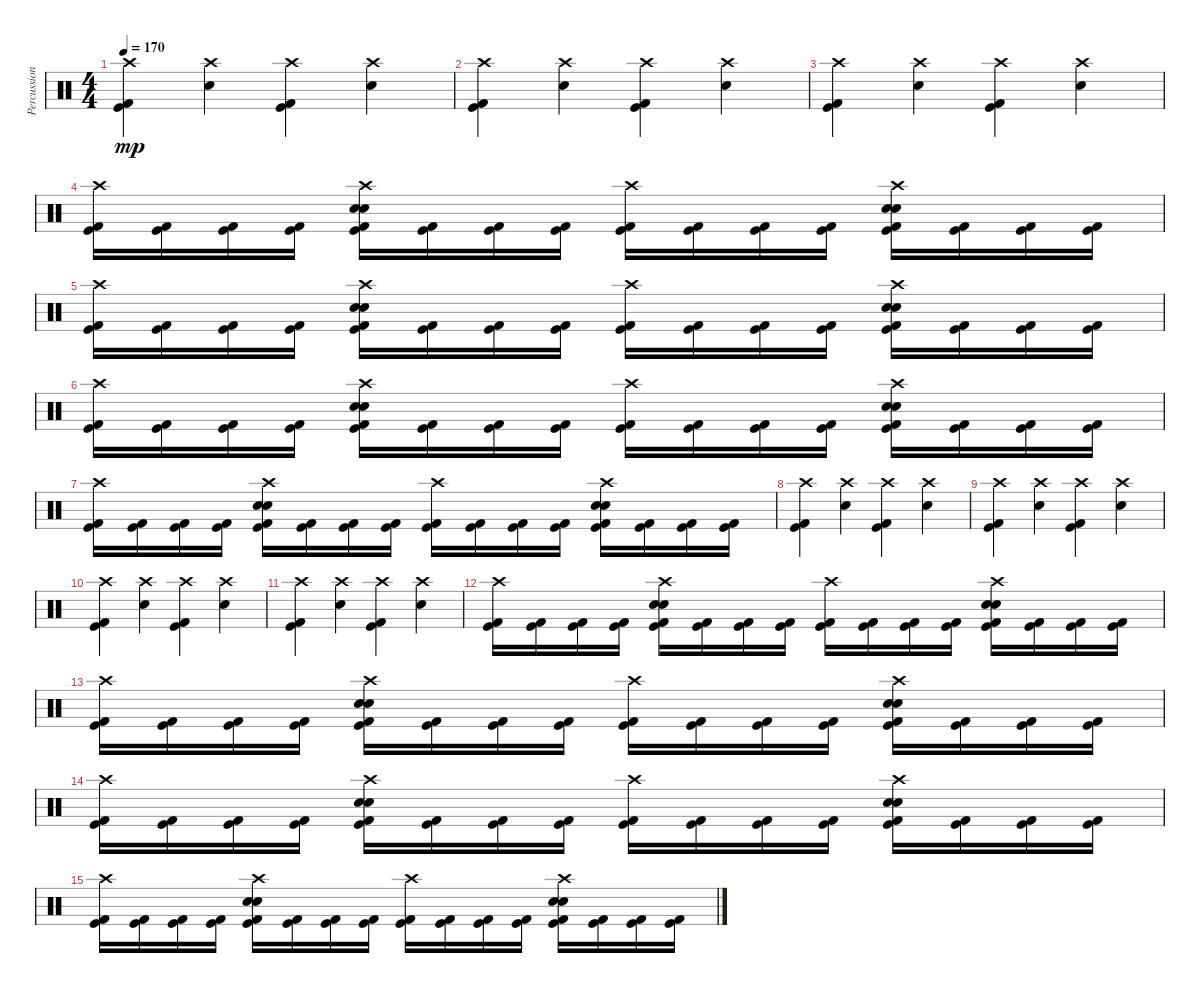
\track ("Percussion" "Percussion") {instrument percussion}
\staff {score}
\articulation defaults
\ts (4 4)
\tempo 170
\clef neutral
\ks c
("Crash high (hit)" "Kick (hit) 2" "Kick (hit)").4{dy mp} ("Crash high (hit)" "Electric Snare (hit)").4 ("Crash high (hit)" "Kick (hit) 2" "Kick (hit)").4 ("Crash high (hit)" "Electric Snare (hit)").4 |
("Crash high (hit)" "Kick (hit) 2" "Kick (hit)").4 ("Crash high (hit)" "Electric Snare (hit)").4 ("Crash high (hit)" "Kick (hit) 2" "Kick (hit)").4 ("Crash high (hit)" "Electric Snare (hit)").4 |
("Crash high (hit)" "Kick (hit) 2" "Kick (hit)").4 ("Crash high (hit)" "Electric Snare (hit)").4 ("Crash high (hit)" "Kick (hit) 2" "Kick (hit)").4 ("Crash high (hit)" "Electric Snare (hit)").4 |
("Crash high (hit)" "Kick (hit)" "Kick (hit) 2").16 ("Kick (hit)" "Kick (hit) 2").16 ("Kick (hit)" "Kick (hit) 2").16 ("Kick (hit)" "Kick (hit) 2").16 ("Crash high (hit)" "Electric Snare (hit)" "Kick (hit)" "Kick (hit) 2" "Electric Snare (hit)").16 ("Kick (hit)" "Kick (hit) 2").16 ("Kick (hit)" "Kick (hit) 2").16 ("Kick (hit)" "Kick (hit) 2").16 ("Crash high (hit)" "Kick (hit)" "Kick (hit) 2").16 ("Kick (hit)" "Kick (hit) 2").16 ("Kick (hit)" "Kick (hit) 2").16 ("Kick (hit)" "Kick (hit) 2").16 ("Crash high (hit)" "Electric Snare (hit)" "Kick (hit)" "Kick (hit) 2" "Electric Snare (hit)").16 ("Kick (hit)" "Kick (hit) 2").16 ("Kick (hit)" "Kick (hit) 2").16 ("Kick (hit)" "Kick (hit) 2").16 |
("Crash high (hit)" "Kick (hit)" "Kick (hit) 2").16 ("Kick (hit)" "Kick (hit) 2").16 ("Kick (hit)" "Kick (hit) 2").16 ("Kick (hit)" "Kick (hit) 2").16 ("Crash high (hit)" "Electric Snare (hit)" "Kick (hit)" "Kick (hit) 2" "Electric Snare (hit)").16 ("Kick (hit)" "Kick (hit) 2").16 ("Kick (hit)" "Kick (hit) 2").16 ("Kick (hit)" "Kick (hit) 2").16 ("Crash high (hit)" "Kick (hit)" "Kick (hit) 2").16 ("Kick (hit)" "Kick (hit) 2").16 ("Kick (hit)" "Kick (hit) 2").16 ("Kick (hit)" "Kick (hit) 2").16 ("Crash high (hit)" "Electric Snare (hit)" "Kick (hit)" "Kick (hit) 2" "Electric Snare (hit)").16 ("Kick (hit)" "Kick (hit) 2").16 ("Kick (hit)" "Kick (hit) 2").16 ("Kick (hit)" "Kick (hit) 2").16 |
("Crash high (hit)" "Kick (hit)" "Kick (hit) 2").16 ("Kick (hit)" "Kick (hit) 2").16 ("Kick (hit)" "Kick (hit) 2").16 ("Kick (hit)" "Kick (hit) 2").16 ("Crash high (hit)" "Electric Snare (hit)" "Kick (hit)" "Kick (hit) 2" "Electric Snare (hit)").16 ("Kick (hit)" "Kick (hit) 2").16 ("Kick (hit)" "Kick (hit) 2").16 ("Kick (hit)" "Kick (hit) 2").16 ("Crash high (hit)" "Kick (hit)" "Kick (hit) 2").16 ("Kick (hit)" "Kick (hit) 2").16 ("Kick (hit)" "Kick (hit) 2").16 ("Kick (hit)" "Kick (hit) 2").16 ("Crash high (hit)" "Electric Snare (hit)" "Kick (hit)" "Kick (hit) 2" "Electric Snare (hit)").16 ("Kick (hit)" "Kick (hit) 2").16 ("Kick (hit)" "Kick (hit) 2").16 ("Kick (hit)" "Kick (hit) 2").16 |
("Crash high (hit)" "Kick (hit)" "Kick (hit) 2").16 ("Kick (hit)" "Kick (hit) 2").16 ("Kick (hit)" "Kick (hit) 2").16 ("Kick (hit)" "Kick (hit) 2").16 ("Crash high (hit)" "Electric Snare (hit)" "Kick (hit)" "Kick (hit) 2" "Electric Snare (hit)").16 ("Kick (hit)" "Kick (hit) 2").16 ("Kick (hit)" "Kick (hit) 2").16 ("Kick (hit)" "Kick (hit) 2").16 ("Crash high (hit)" "Kick (hit)" "Kick (hit) 2").16 ("Kick (hit)" "Kick (hit) 2").16 ("Kick (hit)" "Kick (hit) 2").16 ("Kick (hit)" "Kick (hit) 2").16 ("Crash high (hit)" "Electric Snare (hit)" "Kick (hit)" "Kick (hit) 2" "Electric Snare (hit)").16 ("Kick (hit)" "Kick (hit) 2").16 ("Kick (hit)" "Kick (hit) 2").16 ("Kick (hit)" "Kick (hit) 2").16 |
("Crash high (hit)" "Kick (hit) 2" "Kick (hit)").4 ("Crash high (hit)" "Electric Snare (hit)").4 ("Crash high (hit)" "Kick (hit) 2" "Kick (hit)").4 ("Crash high (hit)" "Electric Snare (hit)").4 |
("Crash high (hit)" "Kick (hit) 2" "Kick (hit)").4 ("Crash high (hit)" "Electric Snare (hit)").4 ("Crash high (hit)" "Kick (hit) 2" "Kick (hit)").4 ("Crash high (hit)" "Electric Snare (hit)").4 |
("Crash high (hit)" "Kick (hit) 2" "Kick (hit)").4 ("Crash high (hit)" "Electric Snare (hit)").4 ("Crash high (hit)" "Kick (hit) 2" "Kick (hit)").4 ("Crash high (hit)" "Electric Snare (hit)").4 |
("Crash high (hit)" "Kick (hit) 2" "Kick (hit)").4 ("Crash high (hit)" "Electric Snare (hit)").4 ("Crash high (hit)" "Kick (hit) 2" "Kick (hit)").4 ("Crash high (hit)" "Electric Snare (hit)").4 |
("Crash high (hit)" "Kick (hit)" "Kick (hit) 2").16 ("Kick (hit)" "Kick (hit) 2").16 ("Kick (hit)" "Kick (hit) 2").16 ("Kick (hit)" "Kick (hit) 2").16 ("Crash high (hit)" "Electric Snare (hit)" "Kick (hit)" "Kick (hit) 2" "Electric Snare (hit)").16 ("Kick (hit)" "Kick (hit) 2").16 ("Kick (hit)" "Kick (hit) 2").16 ("Kick (hit)" "Kick (hit) 2").16 ("Crash high (hit)" "Kick (hit)" "Kick (hit) 2").16 ("Kick (hit)" "Kick (hit) 2").16 ("Kick (hit)" "Kick (hit) 2").16 ("Kick (hit)" "Kick (hit) 2").16 ("Crash high (hit)" "Electric Snare (hit)" "Kick (hit)" "Kick (hit) 2" "Electric Snare (hit)").16 ("Kick (hit)" "Kick (hit) 2").16 ("Kick (hit)" "Kick (hit) 2").16 ("Kick (hit)" "Kick (hit) 2").16 |
("Crash high (hit)" "Kick (hit)" "Kick (hit) 2").16 ("Kick (hit)" "Kick (hit) 2").16 ("Kick (hit)" "Kick (hit) 2").16 ("Kick (hit)" "Kick (hit) 2").16 ("Crash high (hit)" "Electric Snare (hit)" "Kick (hit)" "Kick (hit) 2" "Electric Snare (hit)").16 ("Kick (hit)" "Kick (hit) 2").16 ("Kick (hit)" "Kick (hit) 2").16 ("Kick (hit)" "Kick (hit) 2").16 ("Crash high (hit)" "Kick (hit)" "Kick (hit) 2").16 ("Kick (hit)" "Kick (hit) 2").16 ("Kick (hit)" "Kick (hit) 2").16 ("Kick (hit)" "Kick (hit) 2").16 ("Crash high (hit)" "Electric Snare (hit)" "Kick (hit)" "Kick (hit) 2" "Electric Snare (hit)").16 ("Kick (hit)" "Kick (hit) 2").16 ("Kick (hit)" "Kick (hit) 2").16 ("Kick (hit)" "Kick (hit) 2").16 |
("Crash high (hit)" "Kick (hit)" "Kick (hit) 2").16 ("Kick (hit)" "Kick (hit) 2").16 ("Kick (hit)" "Kick (hit) 2").16 ("Kick (hit)" "Kick (hit) 2").16 ("Crash high (hit)" "Electric Snare (hit)" "Kick (hit)" "Kick (hit) 2" "Electric Snare (hit)").16 ("Kick (hit)" "Kick (hit) 2").16 ("Kick (hit)" "Kick (hit) 2").16 ("Kick (hit)" "Kick (hit) 2").16 ("Crash high (hit)" "Kick (hit)" "Kick (hit) 2").16 ("Kick (hit)" "Kick (hit) 2").16 ("Kick (hit)" "Kick (hit) 2").16 ("Kick (hit)" "Kick (hit) 2").16 ("Crash high (hit)" "Electric Snare (hit)" "Kick (hit)" "Kick (hit) 2" "Electric Snare (hit)").16 ("Kick (hit)" "Kick (hit) 2").16 ("Kick (hit)" "Kick (hit) 2").16 ("Kick (hit)" "Kick (hit) 2").16 |
("Crash high (hit)" "Kick (hit)" "Kick (hit) 2").16 ("Kick (hit)" "Kick (hit) 2").16 ("Kick (hit)" "Kick (hit) 2").16 ("Kick (hit)" "Kick (hit) 2").16 ("Crash high (hit)" "Electric Snare (hit)" "Kick (hit)" "Kick (hit) 2" "Electric Snare (hit)").16 ("Kick (hit)" "Kick (hit) 2").16 ("Kick (hit)" "Kick (hit) 2").16 ("Kick (hit)" "Kick (hit) 2").16 ("Crash high (hit)" "Kick (hit)" "Kick (hit) 2").16 ("Kick (hit)" "Kick (hit) 2").16 ("Kick (hit)" "Kick (hit) 2").16 ("Kick (hit)" "Kick (hit) 2").16 ("Crash high (hit)" "Electric Snare (hit)" "Kick (hit)" "Kick (hit) 2" "Electric Snare (hit)").16 ("Kick (hit)" "Kick (hit) 2").16 ("Kick (hit)" "Kick (hit) 2").16 ("Kick (hit)" "Kick (hit) 2").16
